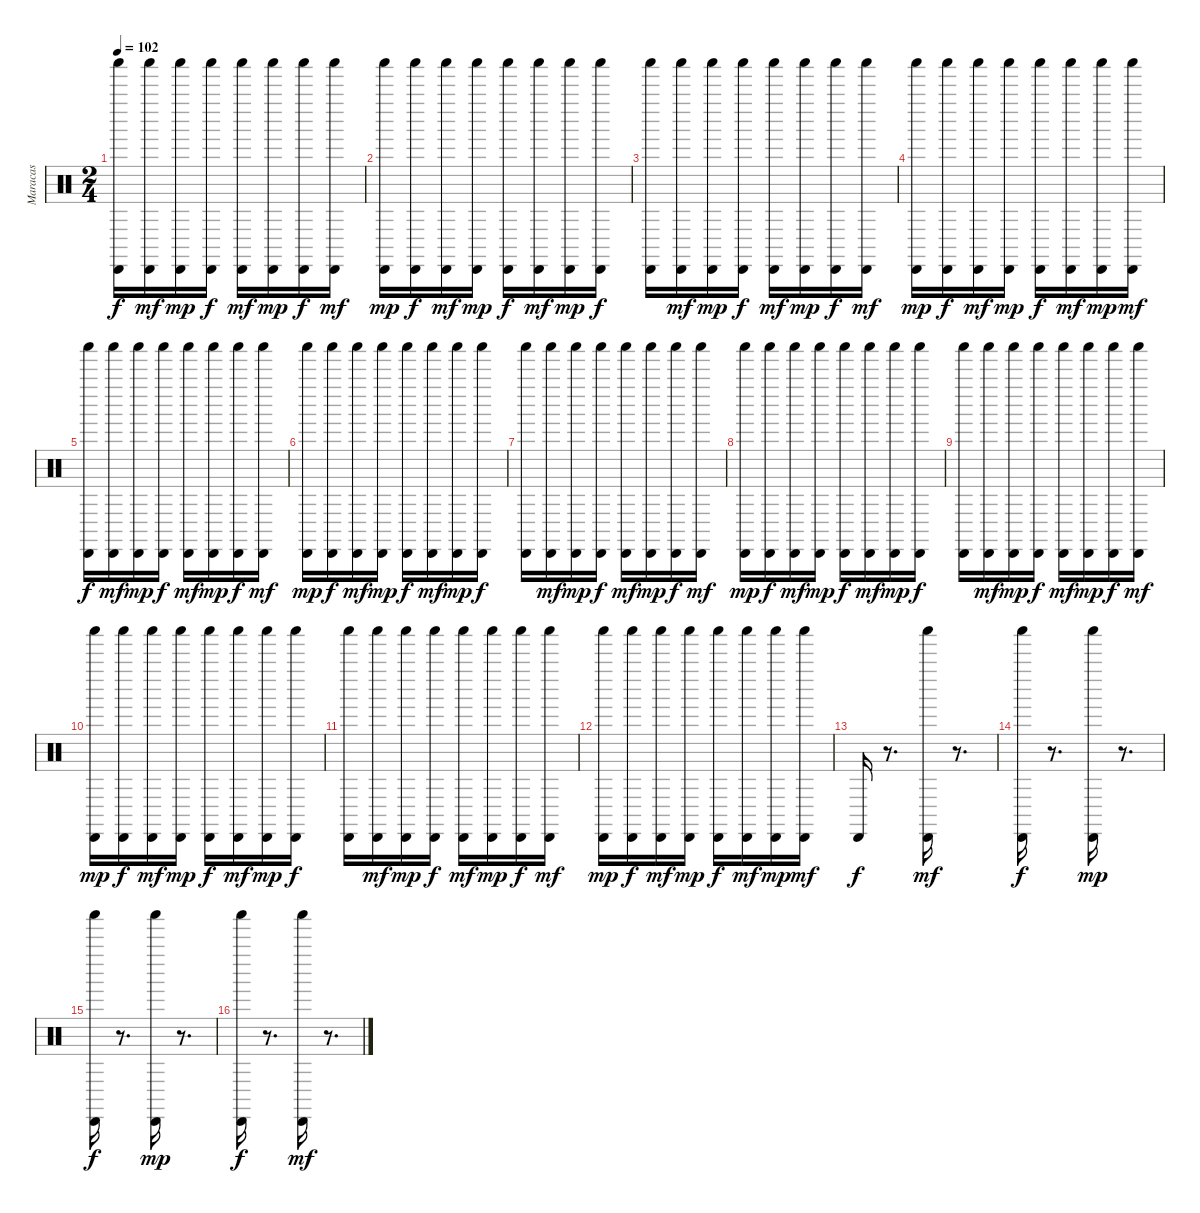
\track ("Maracas" "Maracas") {instrument percussion}
\staff {score}
\articulation defaults
\ts (2 4)
\tempo 102
\clef neutral
\ks c
("Cabasa (hit)" "Shaker (hit)").16{dy f} ("Cabasa (hit)" "Shaker (hit)").16{dy mf} ("Cabasa (hit)" "Shaker (hit)").16{dy mp} ("Cabasa (hit)" "Shaker (hit)").16{dy f} ("Cabasa (hit)" "Shaker (hit)").16{dy mf} ("Cabasa (hit)" "Shaker (hit)").16{dy mp} ("Cabasa (hit)" "Shaker (hit)").16{dy f} ("Cabasa (hit)" "Shaker (hit)").16{dy mf} |
("Cabasa (hit)" "Shaker (hit)").16{dy mp} ("Cabasa (hit)" "Shaker (hit)").16{dy f} ("Cabasa (hit)" "Shaker (hit)").16{dy mf} ("Cabasa (hit)" "Shaker (hit)").16{dy mp} ("Cabasa (hit)" "Shaker (hit)").16{dy f} ("Cabasa (hit)" "Shaker (hit)").16{dy mf} ("Cabasa (hit)" "Shaker (hit)").16{dy mp} ("Cabasa (hit)" "Shaker (hit)").16{dy f} |
("Cabasa (hit)" "Shaker (hit)").16 ("Cabasa (hit)" "Shaker (hit)").16{dy mf} ("Cabasa (hit)" "Shaker (hit)").16{dy mp} ("Cabasa (hit)" "Shaker (hit)").16{dy f} ("Cabasa (hit)" "Shaker (hit)").16{dy mf} ("Cabasa (hit)" "Shaker (hit)").16{dy mp} ("Cabasa (hit)" "Shaker (hit)").16{dy f} ("Cabasa (hit)" "Shaker (hit)").16{dy mf} |
("Cabasa (hit)" "Shaker (hit)").16{dy mp} ("Cabasa (hit)" "Shaker (hit)").16{dy f} ("Cabasa (hit)" "Shaker (hit)").16{dy mf} ("Cabasa (hit)" "Shaker (hit)").16{dy mp} ("Cabasa (hit)" "Shaker (hit)").16{dy f} ("Cabasa (hit)" "Shaker (hit)").16{dy mf} ("Cabasa (hit)" "Shaker (hit)").16{dy mp} ("Cabasa (hit)" "Shaker (hit)").16{dy mf} |
("Shaker (hit)" "Cabasa (hit)").16{dy f} ("Shaker (hit)" "Cabasa (hit)").16{dy mf} ("Shaker (hit)" "Cabasa (hit)").16{dy mp} ("Shaker (hit)" "Cabasa (hit)").16{dy f} ("Shaker (hit)" "Cabasa (hit)").16{dy mf} ("Shaker (hit)" "Cabasa (hit)").16{dy mp} ("Shaker (hit)" "Cabasa (hit)").16{dy f} ("Shaker (hit)" "Cabasa (hit)").16{dy mf} |
("Shaker (hit)" "Cabasa (hit)").16{dy mp} ("Shaker (hit)" "Cabasa (hit)").16{dy f} ("Shaker (hit)" "Cabasa (hit)").16{dy mf} ("Shaker (hit)" "Cabasa (hit)").16{dy mp} ("Shaker (hit)" "Cabasa (hit)").16{dy f} ("Shaker (hit)" "Cabasa (hit)").16{dy mf} ("Shaker (hit)" "Cabasa (hit)").16{dy mp} ("Shaker (hit)" "Cabasa (hit)").16{dy f} |
("Cabasa (hit)" "Shaker (hit)").16 ("Cabasa (hit)" "Shaker (hit)").16{dy mf} ("Cabasa (hit)" "Shaker (hit)").16{dy mp} ("Cabasa (hit)" "Shaker (hit)").16{dy f} ("Cabasa (hit)" "Shaker (hit)").16{dy mf} ("Cabasa (hit)" "Shaker (hit)").16{dy mp} ("Cabasa (hit)" "Shaker (hit)").16{dy f} ("Cabasa (hit)" "Shaker (hit)").16{dy mf} |
("Cabasa (hit)" "Shaker (hit)").16{dy mp} ("Cabasa (hit)" "Shaker (hit)").16{dy f} ("Cabasa (hit)" "Shaker (hit)").16{dy mf} ("Cabasa (hit)" "Shaker (hit)").16{dy mp} ("Cabasa (hit)" "Shaker (hit)").16{dy f} ("Cabasa (hit)" "Shaker (hit)").16{dy mf} ("Cabasa (hit)" "Shaker (hit)").16{dy mp} ("Cabasa (hit)" "Shaker (hit)").16{dy f} |
("Cabasa (hit)" "Shaker (hit)").16 ("Cabasa (hit)" "Shaker (hit)").16{dy mf} ("Cabasa (hit)" "Shaker (hit)").16{dy mp} ("Cabasa (hit)" "Shaker (hit)").16{dy f} ("Cabasa (hit)" "Shaker (hit)").16{dy mf} ("Cabasa (hit)" "Shaker (hit)").16{dy mp} ("Cabasa (hit)" "Shaker (hit)").16{dy f} ("Cabasa (hit)" "Shaker (hit)").16{dy mf} |
("Cabasa (hit)" "Shaker (hit)").16{dy mp} ("Cabasa (hit)" "Shaker (hit)").16{dy f} ("Cabasa (hit)" "Shaker (hit)").16{dy mf} ("Cabasa (hit)" "Shaker (hit)").16{dy mp} ("Cabasa (hit)" "Shaker (hit)").16{dy f} ("Cabasa (hit)" "Shaker (hit)").16{dy mf} ("Cabasa (hit)" "Shaker (hit)").16{dy mp} ("Cabasa (hit)" "Shaker (hit)").16{dy f} |
("Cabasa (hit)" "Shaker (hit)").16 ("Cabasa (hit)" "Shaker (hit)").16{dy mf} ("Cabasa (hit)" "Shaker (hit)").16{dy mp} ("Cabasa (hit)" "Shaker (hit)").16{dy f} ("Cabasa (hit)" "Shaker (hit)").16{dy mf} ("Cabasa (hit)" "Shaker (hit)").16{dy mp} ("Cabasa (hit)" "Shaker (hit)").16{dy f} ("Cabasa (hit)" "Shaker (hit)").16{dy mf} |
("Cabasa (hit)" "Shaker (hit)").16{dy mp} ("Cabasa (hit)" "Shaker (hit)").16{dy f} ("Cabasa (hit)" "Shaker (hit)").16{dy mf} ("Cabasa (hit)" "Shaker (hit)").16{dy mp} ("Cabasa (hit)" "Shaker (hit)").16{dy f} ("Cabasa (hit)" "Shaker (hit)").16{dy mf} ("Cabasa (hit)" "Shaker (hit)").16{dy mp} ("Cabasa (hit)" "Shaker (hit)").16{dy mf} |
"Cabasa (hit)".16{dy f} r.8{d} ("Shaker (hit)" "Cabasa (hit)").16{dy mf} r.8{d} |
("Shaker (hit)" "Cabasa (hit)").16{dy f} r.8{d} ("Shaker (hit)" "Cabasa (hit)").16{dy mp} r.8{d} |
("Cabasa (hit)" "Shaker (hit)").16{dy f} r.8{d} ("Cabasa (hit)" "Shaker (hit)").16{dy mp} r.8{d} |
("Cabasa (hit)" "Shaker (hit)").16{dy f} r.8{d} ("Cabasa (hit)" "Shaker (hit)").16{dy mf} r.8{d}
